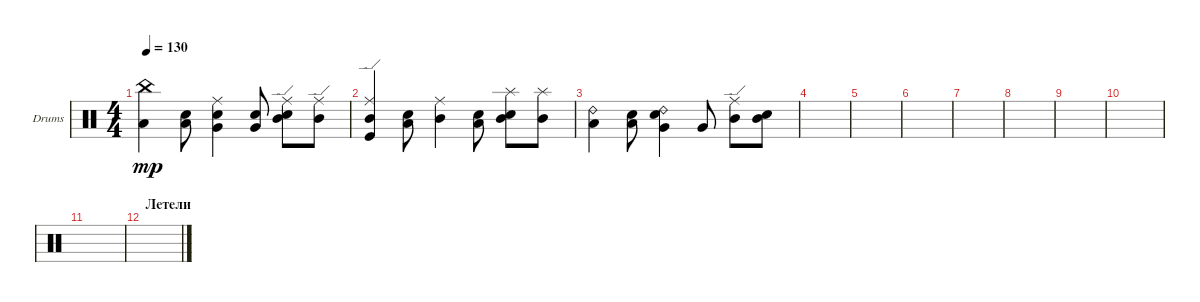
\defaultSystemsLayout 4
\bracketExtendMode groupsimilarinstruments
\firstSystemTrackNameOrientation horizontal
\otherSystemsTrackNameOrientation horizontal
\track ("Drumkit" "Drums") {instrument percussion}
\staff {score}
\articulation defaults
\ts (4 4)
\tempo 130
\clef neutral
\ks c
("Low Tom (hit)" "China (hit)").4{dy mp} ("Low Tom (hit)" "Snare (hit) 2").8 ("Very Low Tom (hit)" "Snare (hit) 2" "Ride (middle)").4 ("Very Low Tom (hit)" "Snare (hit) 2").8 ("Mid Tom (hit)" "Snare (hit) 2" "Ride (edge)").8 ("Mid Tom (hit)" "Ride (edge)").8 |
("Mid Tom (hit)" "Kick (hit)" "Ride (edge)").4 ("Low Tom (hit)" "Snare (hit) 2").8 ("Mid Tom (hit)" "Ride (middle)").4 ("Low Tom (hit)" "Snare (hit) 2").8 ("Mid Tom (hit)" "Snare (hit) 2" "Splash (hit)").8 ("Mid Tom (hit)" "Splash (hit)").8 |
("Low Tom (hit)" "Ride (bell) 2").4 ("Low Tom (hit)" "Snare (hit) 2").8 ("Very Low Tom (hit)" "Snare (hit) 2" "Ride (bell) 2").4 "Very Low Tom (hit)".8 ("Mid Tom (hit)" "Ride (edge)").8 ("Mid Tom (hit)" "Snare (hit) 2").8 |
|
|
|
|
|
|
|
|
\section ("" "Летели")
